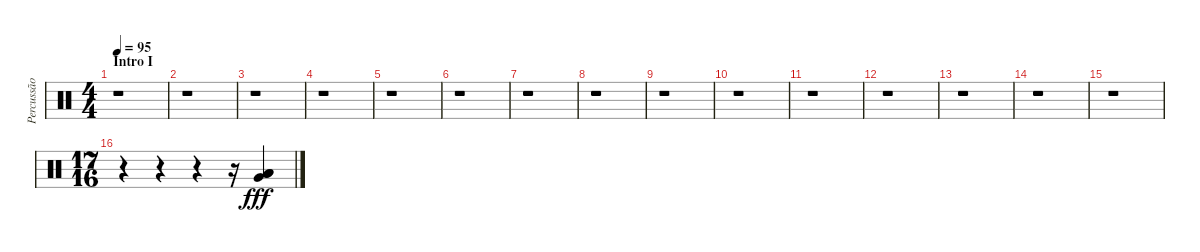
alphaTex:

\track ("Percussão" "Percussão") {instrument percussion}
\staff {score}
\articulation defaults
\ts (4 4)
\section ("" "Intro I")
\tempo 95
\clef neutral
\ks c
r.1{dy fff} |
r.1 |
r.1 |
r.1 |
r.1 |
r.1 |
r.1 |
r.1 |
r.1 |
r.1 |
r.1 |
r.1 |
r.1 |
r.1 |
r.1 |
\ts (17 16)
r.4 r.4 r.4 r.16 ("Low Floor Tom (hit)" "Very Low Tom (hit)" "Low Tom (hit)").4
